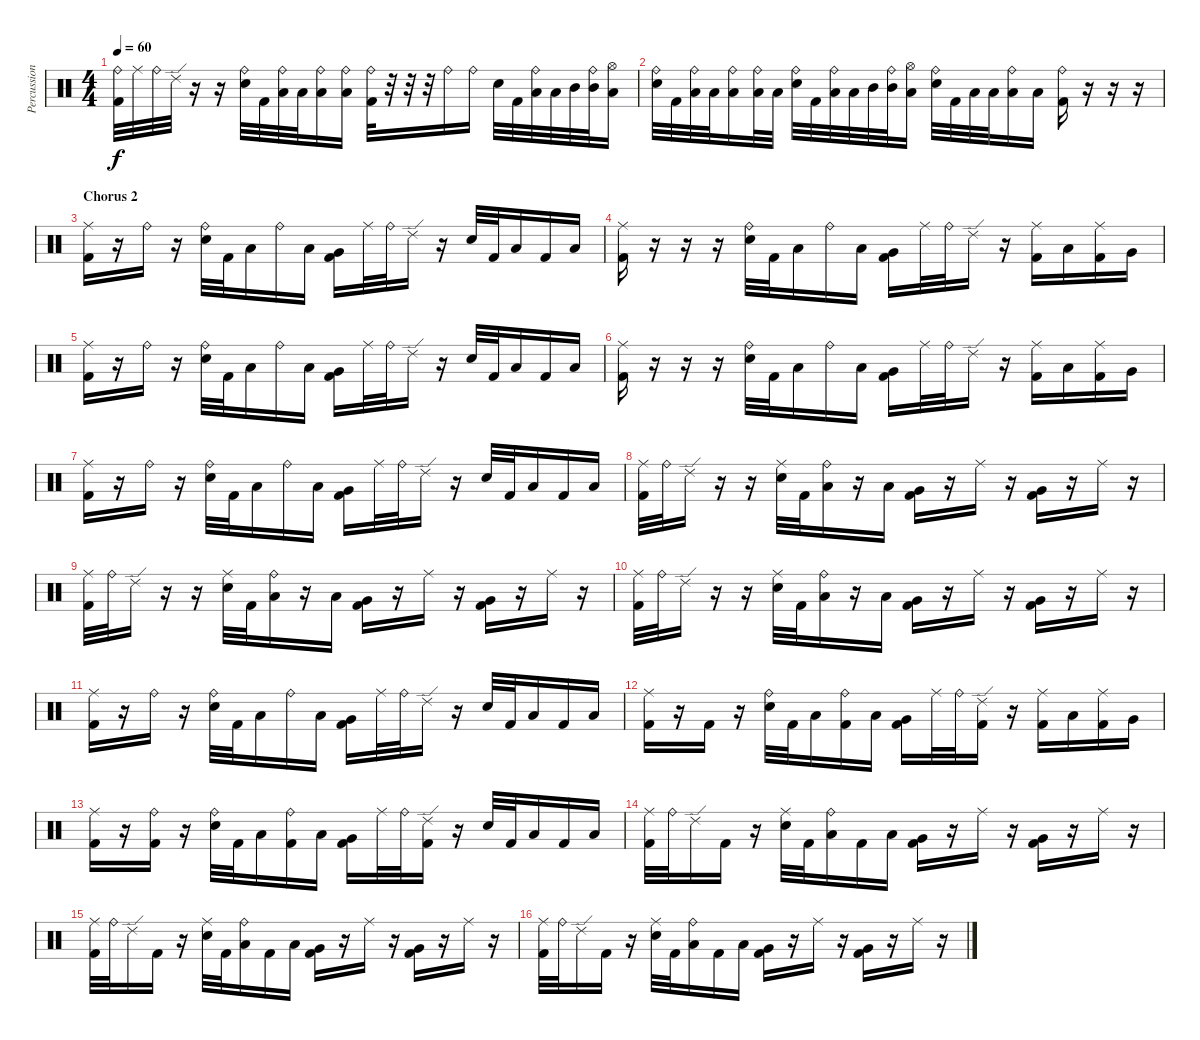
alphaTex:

\track ("Percussion" "Percussion") {instrument percussion}
\staff {score}
\articulation defaults
\ts (4 4)
\tempo 60
\clef neutral
\ks c
("Ride (bell)" "Kick (hit) 2").32{dy f} "Ride (middle)".32 "Ride (bell)".32 "Ride (edge) 2".32 r.16 r.16 ("Ride (bell)" "Electric Snare (hit)").32 "Kick (hit) 2".32 ("Ride (bell)" "Low Tom (hit)").32 "Low Tom (hit)".32 ("Ride (bell)" "Low Tom (hit)").16 ("Ride (bell)" "Low Tom (hit)").16 ("Ride (bell)" "Kick (hit) 2").32 r.32 r.32 r.32 "Ride (bell)".16 "Ride (bell)".16 "Electric Snare (hit)".32 "Kick (hit) 2".32 ("Ride (bell)" "Low Tom (hit)").32 "Low Tom (hit)".32 "Mid Tom (hit)".32 ("Ride (bell)" "Mid Tom (hit)").32 ("Hi-Hat (open)" "Low Tom (hit)").16 |
("Ride (bell)" "Electric Snare (hit)").32 "Kick (hit) 2".32 ("Ride (bell)" "Low Tom (hit)").32 "Low Tom (hit)".32 ("Ride (bell)" "Low Tom (hit)").16 ("Ride (bell)" "Low Tom (hit)").32 "Low Tom (hit)".32 ("Ride (bell)" "Electric Snare (hit)").32 "Kick (hit) 2".32 ("Ride (bell)" "Low Tom (hit)").32 "Low Tom (hit)".32 "Mid Tom (hit)".32 ("Ride (bell)" "Mid Tom (hit)").32 ("Hi-Hat (open)" "Low Tom (hit)").16 ("Ride (bell)" "Electric Snare (hit)").32 "Kick (hit) 2".32 "Low Tom (hit)".32 "Low Tom (hit)".32 ("Ride (bell)" "Low Tom (hit)").16 "Low Tom (hit)".16 ("Ride (bell)" "Kick (hit) 2").16 r.16 r.16 r.16 |
\section ("" "Chorus 2")
("Ride (middle)" "Kick (hit) 2").16 r.16 "Ride (bell)".16 r.16 ("Ride (bell)" "Electric Snare (hit)").32 "Kick (hit) 2".32 "Low Tom (hit)".16 "Ride (bell)".16 "Low Tom (hit)".16 ("Very Low Tom (hit)" "Kick (hit) 2").16 "Ride (middle)".32 "Ride (bell)".32 "Ride (edge) 2".16 r.16 "Electric Snare (hit)".32 "Kick (hit) 2".32 "Low Tom (hit)".16 "Kick (hit) 2".16 "Low Tom (hit)".16 |
("Ride (middle)" "Kick (hit) 2").16 r.16 r.16 r.16 ("Ride (bell)" "Electric Snare (hit)").32 "Kick (hit) 2".32 "Low Tom (hit)".16 "Ride (bell)".16 "Low Tom (hit)".16 ("Very Low Tom (hit)" "Kick (hit) 2").16 "Ride (middle)".32 "Ride (bell)".32 "Ride (edge) 2".16 r.16 ("Ride (middle)" "Kick (hit) 2").16 "Low Tom (hit)".16 ("Ride (middle)" "Kick (hit) 2").16 "Very Low Tom (hit)".16 |
("Ride (middle)" "Kick (hit) 2").16 r.16 "Ride (bell)".16 r.16 ("Ride (bell)" "Electric Snare (hit)").32 "Kick (hit) 2".32 "Low Tom (hit)".16 "Ride (bell)".16 "Low Tom (hit)".16 ("Very Low Tom (hit)" "Kick (hit) 2").16 "Ride (middle)".32 "Ride (bell)".32 "Ride (edge) 2".16 r.16 "Electric Snare (hit)".32 "Kick (hit) 2".32 "Low Tom (hit)".16 "Kick (hit) 2".16 "Low Tom (hit)".16 |
("Ride (middle)" "Kick (hit) 2").16 r.16 r.16 r.16 ("Ride (bell)" "Electric Snare (hit)").32 "Kick (hit) 2".32 "Low Tom (hit)".16 "Ride (bell)".16 "Low Tom (hit)".16 ("Very Low Tom (hit)" "Kick (hit) 2").16 "Ride (middle)".32 "Ride (bell)".32 "Ride (edge) 2".16 r.16 ("Ride (middle)" "Kick (hit) 2").16 "Low Tom (hit)".16 ("Ride (middle)" "Kick (hit) 2").16 "Very Low Tom (hit)".16 |
("Ride (middle)" "Kick (hit) 2").16 r.16 "Ride (bell)".16 r.16 ("Ride (bell)" "Electric Snare (hit)").32 "Kick (hit) 2".32 "Low Tom (hit)".16 "Ride (bell)".16 "Low Tom (hit)".16 ("Very Low Tom (hit)" "Kick (hit) 2").16 "Ride (middle)".32 "Ride (bell)".32 "Ride (edge) 2".16 r.16 "Electric Snare (hit)".32 "Kick (hit) 2".32 "Low Tom (hit)".16 "Kick (hit) 2".16 "Low Tom (hit)".16 |
("Ride (middle)" "Kick (hit) 2").32 "Ride (bell)".32 "Ride (edge) 2".16 r.16 r.16 ("Ride (middle)" "Electric Snare (hit)").32 "Kick (hit) 2".32 ("Ride (bell)" "Low Tom (hit)").16 r.16 "Low Tom (hit)".16 ("Very Low Tom (hit)" "Kick (hit) 2").16 r.16 "Ride (middle)".16 r.16 ("Very Low Tom (hit)" "Kick (hit) 2").16 r.16 "Ride (middle)".16 r.16 |
("Ride (middle)" "Kick (hit) 2").32 "Ride (bell)".32 "Ride (edge) 2".16 r.16 r.16 ("Ride (middle)" "Electric Snare (hit)").32 "Kick (hit) 2".32 ("Ride (bell)" "Low Tom (hit)").16 r.16 "Low Tom (hit)".16 ("Very Low Tom (hit)" "Kick (hit) 2").16 r.16 "Ride (middle)".16 r.16 ("Very Low Tom (hit)" "Kick (hit) 2").16 r.16 "Ride (middle)".16 r.16 |
("Ride (middle)" "Kick (hit) 2").32 "Ride (bell)".32 "Ride (edge) 2".16 r.16 r.16 ("Ride (middle)" "Electric Snare (hit)").32 "Kick (hit) 2".32 ("Ride (bell)" "Low Tom (hit)").16 r.16 "Low Tom (hit)".16 ("Very Low Tom (hit)" "Kick (hit) 2").16 r.16 "Ride (middle)".16 r.16 ("Very Low Tom (hit)" "Kick (hit) 2").16 r.16 "Ride (middle)".16 r.16 |
("Ride (middle)" "Kick (hit) 2").16 r.16 "Ride (bell)".16 r.16 ("Ride (bell)" "Electric Snare (hit)").32 "Kick (hit) 2".32 "Low Tom (hit)".16 "Ride (bell)".16 "Low Tom (hit)".16 ("Very Low Tom (hit)" "Kick (hit) 2").16 "Ride (middle)".32 "Ride (bell)".32 "Ride (edge) 2".16 r.16 "Electric Snare (hit)".32 "Kick (hit) 2".32 "Low Tom (hit)".16 "Kick (hit) 2".16 "Low Tom (hit)".16 |
("Ride (middle)" "Kick (hit) 2").16 r.16 "Kick (hit) 2".16 r.16 ("Ride (bell)" "Electric Snare (hit)").32 "Kick (hit) 2".32 "Low Tom (hit)".16 ("Ride (bell)" "Kick (hit) 2").16 "Low Tom (hit)".16 ("Very Low Tom (hit)" "Kick (hit) 2").16 "Ride (middle)".32 "Ride (bell)".32 ("Ride (edge) 2" "Kick (hit) 2").16 r.16 ("Ride (middle)" "Kick (hit) 2").16 "Low Tom (hit)".16 ("Ride (middle)" "Kick (hit) 2").16 "Very Low Tom (hit)".16 |
("Ride (middle)" "Kick (hit) 2").16 r.16 ("Ride (bell)" "Kick (hit) 2").16 r.16 ("Ride (bell)" "Electric Snare (hit)").32 "Kick (hit) 2".32 "Low Tom (hit)".16 ("Ride (bell)" "Kick (hit) 2").16 "Low Tom (hit)".16 ("Very Low Tom (hit)" "Kick (hit) 2").16 "Ride (middle)".32 "Ride (bell)".32 ("Ride (edge) 2" "Kick (hit) 2").16 r.16 "Electric Snare (hit)".32 "Kick (hit) 2".32 "Low Tom (hit)".16 "Kick (hit) 2".16 "Low Tom (hit)".16 |
("Ride (middle)" "Kick (hit) 2").32 "Ride (bell)".32 "Ride (edge) 2".16 "Kick (hit) 2".16 r.16 ("Ride (middle)" "Electric Snare (hit)").32 "Kick (hit) 2".32 ("Ride (bell)" "Low Tom (hit)").16 "Kick (hit) 2".16 "Low Tom (hit)".16 ("Very Low Tom (hit)" "Kick (hit) 2").16 r.16 "Ride (middle)".16 r.16 ("Very Low Tom (hit)" "Kick (hit) 2").16 r.16 "Ride (middle)".16 r.16 |
("Ride (middle)" "Kick (hit) 2").32 "Ride (bell)".32 "Ride (edge) 2".16 "Kick (hit) 2".16 r.16 ("Ride (middle)" "Electric Snare (hit)").32 "Kick (hit) 2".32 ("Ride (bell)" "Low Tom (hit)").16 "Kick (hit) 2".16 "Low Tom (hit)".16 ("Very Low Tom (hit)" "Kick (hit) 2").16 r.16 "Ride (middle)".16 r.16 ("Very Low Tom (hit)" "Kick (hit) 2").16 r.16 "Ride (middle)".16 r.16 |
("Ride (middle)" "Kick (hit) 2").32 "Ride (bell)".32 "Ride (edge) 2".16 "Kick (hit) 2".16 r.16 ("Ride (middle)" "Electric Snare (hit)").32 "Kick (hit) 2".32 ("Ride (bell)" "Low Tom (hit)").16 "Kick (hit) 2".16 "Low Tom (hit)".16 ("Very Low Tom (hit)" "Kick (hit) 2").16 r.16 "Ride (middle)".16 r.16 ("Very Low Tom (hit)" "Kick (hit) 2").16 r.16 "Ride (middle)".16 r.16
